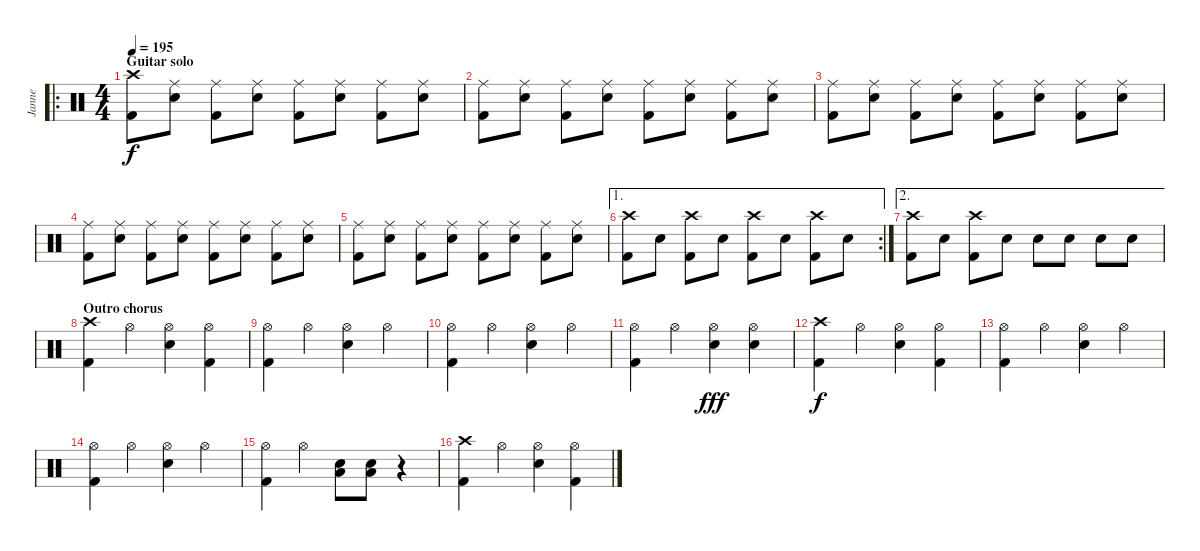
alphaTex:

\track ("Janne" "Janne") {instrument percussion}
\staff {score}
\articulation defaults
\ro
\ts (4 4)
\section ("" "Guitar solo")
\tempo 195
\clef neutral
\ks c
("Crash high (hit)" "Kick (hit) 2").8{dy f} ("Ride (middle)" "Electric Snare (hit)").8 ("Ride (middle)" "Kick (hit) 2").8 ("Ride (middle)" "Electric Snare (hit)").8 ("Ride (middle)" "Kick (hit) 2").8 ("Ride (middle)" "Electric Snare (hit)").8 ("Ride (middle)" "Kick (hit) 2").8 ("Ride (middle)" "Electric Snare (hit)").8 |
("Ride (middle)" "Kick (hit) 2").8 ("Ride (middle)" "Electric Snare (hit)").8 ("Ride (middle)" "Kick (hit) 2").8 ("Ride (middle)" "Electric Snare (hit)").8 ("Ride (middle)" "Kick (hit) 2").8 ("Ride (middle)" "Electric Snare (hit)").8 ("Ride (middle)" "Kick (hit) 2").8 ("Ride (middle)" "Electric Snare (hit)").8 |
("Ride (middle)" "Kick (hit) 2").8 ("Ride (middle)" "Electric Snare (hit)").8 ("Ride (middle)" "Kick (hit) 2").8 ("Ride (middle)" "Electric Snare (hit)").8 ("Ride (middle)" "Kick (hit) 2").8 ("Ride (middle)" "Electric Snare (hit)").8 ("Ride (middle)" "Kick (hit) 2").8 ("Ride (middle)" "Electric Snare (hit)").8 |
("Ride (middle)" "Kick (hit) 2").8 ("Ride (middle)" "Electric Snare (hit)").8 ("Ride (middle)" "Kick (hit) 2").8 ("Ride (middle)" "Electric Snare (hit)").8 ("Ride (middle)" "Kick (hit) 2").8 ("Ride (middle)" "Electric Snare (hit)").8 ("Ride (middle)" "Kick (hit) 2").8 ("Ride (middle)" "Electric Snare (hit)").8 |
("Ride (middle)" "Kick (hit) 2").8 ("Ride (middle)" "Electric Snare (hit)").8 ("Ride (middle)" "Kick (hit) 2").8 ("Ride (middle)" "Electric Snare (hit)").8 ("Ride (middle)" "Kick (hit) 2").8 ("Ride (middle)" "Electric Snare (hit)").8 ("Ride (middle)" "Kick (hit) 2").8 ("Ride (middle)" "Electric Snare (hit)").8 |
\ae 1
\rc 2
("Crash high (hit)" "Kick (hit) 2").8 "Electric Snare (hit)".8 ("Crash high (hit)" "Kick (hit) 2").8 "Electric Snare (hit)".8 ("Crash high (hit)" "Kick (hit) 2").8 "Electric Snare (hit)".8 ("Crash high (hit)" "Kick (hit) 2").8 "Electric Snare (hit)".8 |
\ae 2
("Crash high (hit)" "Kick (hit) 2").8 "Electric Snare (hit)".8 ("Crash high (hit)" "Kick (hit) 2").8 "Electric Snare (hit)".8 "Electric Snare (hit)".8 "Electric Snare (hit)".8 "Electric Snare (hit)".8 "Electric Snare (hit)".8 |
\section ("" "Outro chorus")
("Crash high (hit)" "Kick (hit) 2").4 "Hi-Hat (open)".4 ("Hi-Hat (open)" "Electric Snare (hit)").4 ("Hi-Hat (open)" "Kick (hit) 2").4 |
("Hi-Hat (open)" "Kick (hit) 2").4 "Hi-Hat (open)".4 ("Hi-Hat (open)" "Electric Snare (hit)").4 "Hi-Hat (open)".4 |
("Hi-Hat (open)" "Kick (hit) 2").4 "Hi-Hat (open)".4 ("Hi-Hat (open)" "Electric Snare (hit)").4 "Hi-Hat (open)".4 |
("Hi-Hat (open)" "Kick (hit) 2").4 "Hi-Hat (open)".4 ("Hi-Hat (open)" "Electric Snare (hit)").4{dy fff} ("Hi-Hat (open)" "Electric Snare (hit)").4 |
("Crash high (hit)" "Kick (hit) 2").4{dy f} "Hi-Hat (open)".4 ("Hi-Hat (open)" "Electric Snare (hit)").4 ("Hi-Hat (open)" "Kick (hit) 2").4 |
("Hi-Hat (open)" "Kick (hit) 2").4 "Hi-Hat (open)".4 ("Hi-Hat (open)" "Electric Snare (hit)").4 "Hi-Hat (open)".4 |
("Hi-Hat (open)" "Kick (hit) 2").4 "Hi-Hat (open)".4 ("Hi-Hat (open)" "Electric Snare (hit)").4 "Hi-Hat (open)".4 |
("Hi-Hat (open)" "Kick (hit) 2").4 "Hi-Hat (open)".4 ("Low Floor Tom (hit)" "Electric Snare (hit)").8 ("Low Floor Tom (hit)" "Electric Snare (hit)").8 r.4 |
("Crash high (hit)" "Kick (hit) 2").4 "Hi-Hat (open)".4 ("Hi-Hat (open)" "Electric Snare (hit)").4 ("Hi-Hat (open)" "Kick (hit) 2").4
